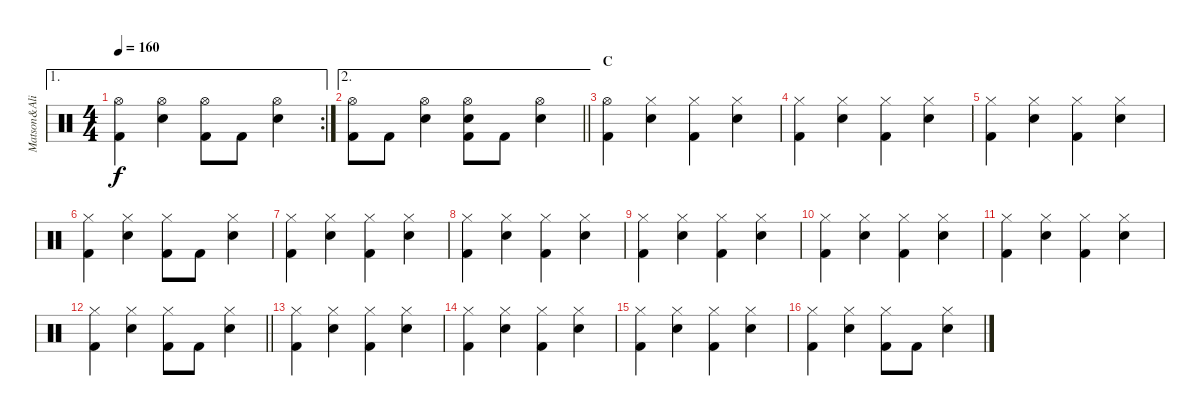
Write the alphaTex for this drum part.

\track ("Matson&Ali" "Matson&Ali") {instrument percussion}
\staff {score}
\articulation defaults
\ae 1
\rc 2
\ts (4 4)
\tempo 160
\clef neutral
\ks c
("Hi-Hat (open)" "Kick (hit) 2").4{dy f} ("Hi-Hat (open)" "Snare (hit) 2").4 ("Hi-Hat (open)" "Kick (hit) 2").8 "Kick (hit) 2".8 ("Hi-Hat (open)" "Snare (hit) 2").4 |
\ae 2
\barLineRight lightlight
("Hi-Hat (open)" "Kick (hit) 2").8 "Kick (hit) 2".8 ("Hi-Hat (open)" "Snare (hit) 2").4 ("Hi-Hat (open)" "Snare (hit) 2" "Kick (hit) 2").8 "Kick (hit) 2".8 ("Hi-Hat (open)" "Snare (hit) 2").4 |
\section ("" "C")
("Hi-Hat (open)" "Kick (hit) 2").4 ("Hi-Hat (closed)" "Snare (hit) 2").4 ("Hi-Hat (closed)" "Kick (hit) 2").4 ("Hi-Hat (closed)" "Snare (hit) 2").4 |
("Hi-Hat (closed)" "Kick (hit) 2").4 ("Hi-Hat (closed)" "Snare (hit) 2").4 ("Hi-Hat (closed)" "Kick (hit) 2").4 ("Hi-Hat (closed)" "Snare (hit) 2").4 |
("Hi-Hat (closed)" "Kick (hit) 2").4 ("Hi-Hat (closed)" "Snare (hit) 2").4 ("Hi-Hat (closed)" "Kick (hit) 2").4 ("Hi-Hat (closed)" "Snare (hit) 2").4 |
("Hi-Hat (closed)" "Kick (hit) 2").4 ("Hi-Hat (closed)" "Snare (hit) 2").4 ("Hi-Hat (closed)" "Kick (hit) 2").8 "Kick (hit) 2".8 ("Hi-Hat (closed)" "Snare (hit) 2").4 |
("Hi-Hat (closed)" "Kick (hit) 2").4 ("Hi-Hat (closed)" "Snare (hit) 2").4 ("Hi-Hat (closed)" "Kick (hit) 2").4 ("Hi-Hat (closed)" "Snare (hit) 2").4 |
("Hi-Hat (closed)" "Kick (hit) 2").4 ("Hi-Hat (closed)" "Snare (hit) 2").4 ("Hi-Hat (closed)" "Kick (hit) 2").4 ("Hi-Hat (closed)" "Snare (hit) 2").4 |
("Hi-Hat (closed)" "Kick (hit) 2").4 ("Hi-Hat (closed)" "Snare (hit) 2").4 ("Hi-Hat (closed)" "Kick (hit) 2").4 ("Hi-Hat (closed)" "Snare (hit) 2").4 |
("Hi-Hat (closed)" "Kick (hit) 2").4 ("Hi-Hat (closed)" "Snare (hit) 2").4 ("Hi-Hat (closed)" "Kick (hit) 2").4 ("Hi-Hat (closed)" "Snare (hit) 2").4 |
("Hi-Hat (closed)" "Kick (hit) 2").4 ("Hi-Hat (closed)" "Snare (hit) 2").4 ("Hi-Hat (closed)" "Kick (hit) 2").4 ("Hi-Hat (closed)" "Snare (hit) 2").4 |
\barLineRight lightlight
("Hi-Hat (closed)" "Kick (hit) 2").4 ("Hi-Hat (closed)" "Snare (hit) 2").4 ("Hi-Hat (closed)" "Kick (hit) 2").8 "Kick (hit) 2".8 ("Hi-Hat (closed)" "Snare (hit) 2").4 |
("Hi-Hat (closed)" "Kick (hit) 2").4 ("Hi-Hat (closed)" "Snare (hit) 2").4 ("Hi-Hat (closed)" "Kick (hit) 2").4 ("Hi-Hat (closed)" "Snare (hit) 2").4 |
("Hi-Hat (closed)" "Kick (hit) 2").4 ("Hi-Hat (closed)" "Snare (hit) 2").4 ("Hi-Hat (closed)" "Kick (hit) 2").4 ("Hi-Hat (closed)" "Snare (hit) 2").4 |
("Hi-Hat (closed)" "Kick (hit) 2").4 ("Hi-Hat (closed)" "Snare (hit) 2").4 ("Hi-Hat (closed)" "Kick (hit) 2").4 ("Hi-Hat (closed)" "Snare (hit) 2").4 |
("Hi-Hat (closed)" "Kick (hit) 2").4 ("Hi-Hat (closed)" "Snare (hit) 2").4 ("Hi-Hat (closed)" "Kick (hit) 2").8 "Kick (hit) 2".8 ("Hi-Hat (closed)" "Snare (hit) 2").4
